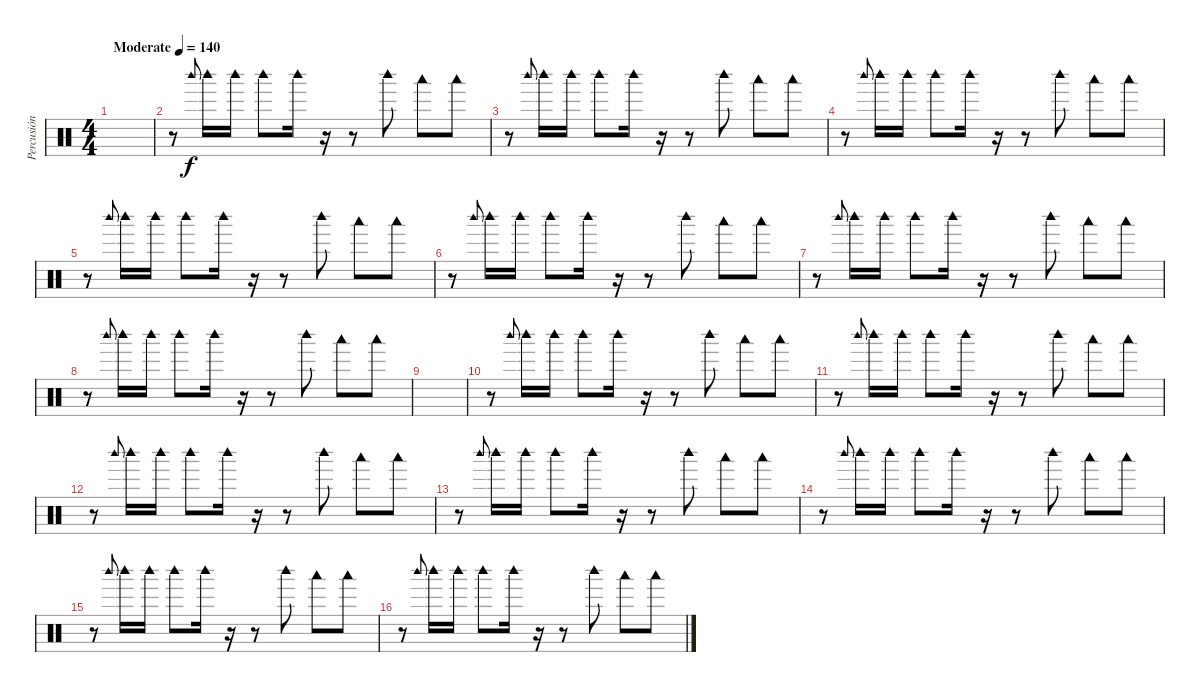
\track ("Percusión" "Percusión") {instrument percussion}
\staff {score}
\articulation defaults
\ts (4 4)
\tempo (140 "Moderate")
\clef neutral
\ks c
|
r.8 "Woodblock high (hit)".8{gr onbeat} "Woodblock high (hit)".16 "Woodblock high (hit)".16 "Woodblock high (hit)".8 "Woodblock high (hit)".16 r.16 r.8 "Woodblock high (hit)".8 "Woodblock low (hit)".8 "Woodblock low (hit)".8 |
r.8 "Woodblock high (hit)".8{gr onbeat} "Woodblock high (hit)".16 "Woodblock high (hit)".16 "Woodblock high (hit)".8 "Woodblock high (hit)".16 r.16 r.8 "Woodblock high (hit)".8 "Woodblock low (hit)".8 "Woodblock low (hit)".8 |
r.8 "Woodblock high (hit)".8{gr onbeat} "Woodblock high (hit)".16 "Woodblock high (hit)".16 "Woodblock high (hit)".8 "Woodblock high (hit)".16 r.16 r.8 "Woodblock high (hit)".8 "Woodblock low (hit)".8 "Woodblock low (hit)".8 |
r.8 "Woodblock high (hit)".8{gr onbeat} "Woodblock high (hit)".16 "Woodblock high (hit)".16 "Woodblock high (hit)".8 "Woodblock high (hit)".16 r.16 r.8 "Woodblock high (hit)".8 "Woodblock low (hit)".8 "Woodblock low (hit)".8 |
r.8 "Woodblock high (hit)".8{gr onbeat} "Woodblock high (hit)".16 "Woodblock high (hit)".16 "Woodblock high (hit)".8 "Woodblock high (hit)".16 r.16 r.8 "Woodblock high (hit)".8 "Woodblock low (hit)".8 "Woodblock low (hit)".8 |
r.8 "Woodblock high (hit)".8{gr onbeat} "Woodblock high (hit)".16 "Woodblock high (hit)".16 "Woodblock high (hit)".8 "Woodblock high (hit)".16 r.16 r.8 "Woodblock high (hit)".8 "Woodblock low (hit)".8 "Woodblock low (hit)".8 |
r.8 "Woodblock high (hit)".8{gr onbeat} "Woodblock high (hit)".16 "Woodblock high (hit)".16 "Woodblock high (hit)".8 "Woodblock high (hit)".16 r.16 r.8 "Woodblock high (hit)".8 "Woodblock low (hit)".8 "Woodblock low (hit)".8 |
|
r.8 "Woodblock high (hit)".8{gr onbeat} "Woodblock high (hit)".16 "Woodblock high (hit)".16 "Woodblock high (hit)".8 "Woodblock high (hit)".16 r.16 r.8 "Woodblock high (hit)".8 "Woodblock low (hit)".8 "Woodblock low (hit)".8 |
r.8 "Woodblock high (hit)".8{gr onbeat} "Woodblock high (hit)".16 "Woodblock high (hit)".16 "Woodblock high (hit)".8 "Woodblock high (hit)".16 r.16 r.8 "Woodblock high (hit)".8 "Woodblock low (hit)".8 "Woodblock low (hit)".8 |
r.8 "Woodblock high (hit)".8{gr onbeat} "Woodblock high (hit)".16 "Woodblock high (hit)".16 "Woodblock high (hit)".8 "Woodblock high (hit)".16 r.16 r.8 "Woodblock high (hit)".8 "Woodblock low (hit)".8 "Woodblock low (hit)".8 |
r.8 "Woodblock high (hit)".8{gr onbeat} "Woodblock high (hit)".16 "Woodblock high (hit)".16 "Woodblock high (hit)".8 "Woodblock high (hit)".16 r.16 r.8 "Woodblock high (hit)".8 "Woodblock low (hit)".8 "Woodblock low (hit)".8 |
r.8 "Woodblock high (hit)".8{gr onbeat} "Woodblock high (hit)".16 "Woodblock high (hit)".16 "Woodblock high (hit)".8 "Woodblock high (hit)".16 r.16 r.8 "Woodblock high (hit)".8 "Woodblock low (hit)".8 "Woodblock low (hit)".8 |
r.8 "Woodblock high (hit)".8{gr onbeat} "Woodblock high (hit)".16 "Woodblock high (hit)".16 "Woodblock high (hit)".8 "Woodblock high (hit)".16 r.16 r.8 "Woodblock high (hit)".8 "Woodblock low (hit)".8 "Woodblock low (hit)".8 |
r.8 "Woodblock high (hit)".8{gr onbeat} "Woodblock high (hit)".16 "Woodblock high (hit)".16 "Woodblock high (hit)".8 "Woodblock high (hit)".16 r.16 r.8 "Woodblock high (hit)".8 "Woodblock low (hit)".8 "Woodblock low (hit)".8
